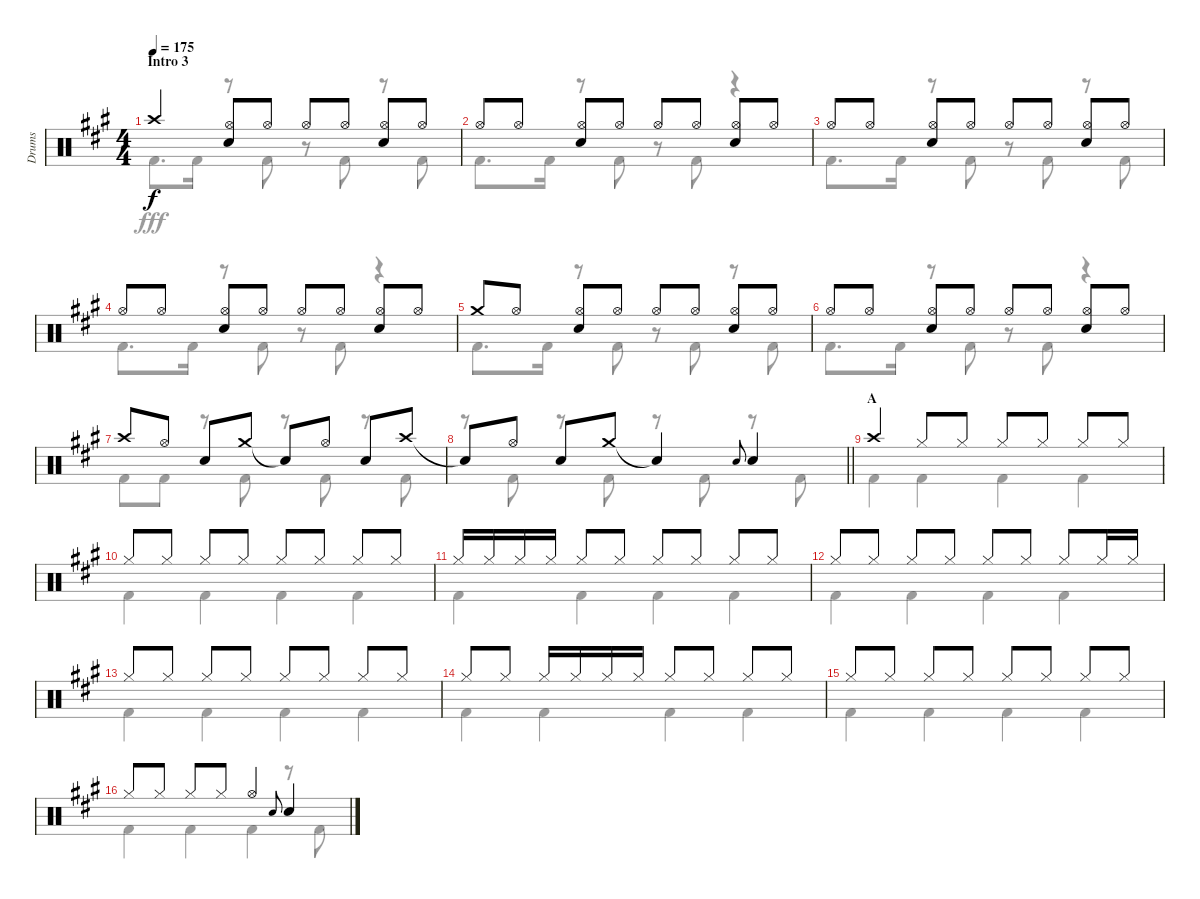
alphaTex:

\track ("Drums" "Drums") {instrument percussion}
\staff {score}
\articulation defaults
\voice
\ts (4 4)
\section ("" "Intro 3")
\tempo 175
\clef neutral
\ks a "Crash high (hit)".4{dy f}
("Hi-Hat (open)" "Snare (hit) 2").8 "Hi-Hat (open)".8 "Hi-Hat (open)".8 "Hi-Hat (open)".8 ("Hi-Hat (open)" "Snare (hit) 2").8 "Hi-Hat (open)".8 |
"Hi-Hat (open)".8 "Hi-Hat (open)".8 ("Hi-Hat (open)" "Snare (hit) 2").8 "Hi-Hat (open)".8 "Hi-Hat (open)".8 "Hi-Hat (open)".8 ("Hi-Hat (open)" "Snare (hit) 2").8 "Hi-Hat (open)".8 |
"Hi-Hat (open)".8 "Hi-Hat (open)".8 ("Hi-Hat (open)" "Snare (hit) 2").8 "Hi-Hat (open)".8 "Hi-Hat (open)".8 "Hi-Hat (open)".8 ("Hi-Hat (open)" "Snare (hit) 2").8 "Hi-Hat (open)".8 |
"Hi-Hat (open)".8 "Hi-Hat (open)".8 ("Hi-Hat (open)" "Snare (hit) 2").8 "Hi-Hat (open)".8 "Hi-Hat (open)".8 "Hi-Hat (open)".8 ("Hi-Hat (open)" "Snare (hit) 2").8 "Hi-Hat (open)".8 |
"Crash medium (hit)".8 "Hi-Hat (open)".8 ("Hi-Hat (open)" "Snare (hit) 2").8 "Hi-Hat (open)".8 "Hi-Hat (open)".8 "Hi-Hat (open)".8 ("Hi-Hat (open)" "Snare (hit) 2").8 "Hi-Hat (open)".8 |
"Hi-Hat (open)".8 "Hi-Hat (open)".8 ("Hi-Hat (open)" "Snare (hit) 2").8 "Hi-Hat (open)".8 "Hi-Hat (open)".8 "Hi-Hat (open)".8 ("Hi-Hat (open)" "Snare (hit) 2").8 "Hi-Hat (open)".8 |
"Crash high (hit)".8 "Hi-Hat (open)".8 "Snare (hit) 2".8 "Crash medium (hit)".8 "Snare (hit)"{t}.8 "Hi-Hat (open)".8 "Snare (hit) 2".8 "Crash high (hit)".8 |
\barLineRight lightlight "Snare (hit)"{t}.8 "Hi-Hat (open)".8 "Snare (hit) 2".8 "Crash medium (hit)".8 "Snare (hit)"{t}.4 "Snare (hit) 2".8{gr onbeat} "Snare (hit) 2".4
|
\section ("" "A")
"Crash high (hit)".4 "Hi-Hat (closed)".8 "Hi-Hat (closed)".8 "Hi-Hat (closed)".8 "Hi-Hat (closed)".8 "Hi-Hat (closed)".8 "Hi-Hat (closed)".8 |
"Hi-Hat (closed)".8 "Hi-Hat (closed)".8 "Hi-Hat (closed)".8 "Hi-Hat (closed)".8 "Hi-Hat (closed)".8 "Hi-Hat (closed)".8 "Hi-Hat (closed)".8 "Hi-Hat (closed)".8 |
"Hi-Hat (closed)".16 "Hi-Hat (closed)".16 "Hi-Hat (closed)".16 "Hi-Hat (closed)".16 "Hi-Hat (closed)".8 "Hi-Hat (closed)".8 "Hi-Hat (closed)".8 "Hi-Hat (closed)".8 "Hi-Hat (closed)".8 "Hi-Hat (closed)".8 |
"Hi-Hat (closed)".8 "Hi-Hat (closed)".8 "Hi-Hat (closed)".8 "Hi-Hat (closed)".8 "Hi-Hat (closed)".8 "Hi-Hat (closed)".8 "Hi-Hat (closed)".8 "Hi-Hat (closed)".16 "Hi-Hat (closed)".16 |
"Hi-Hat (closed)".8 "Hi-Hat (closed)".8 "Hi-Hat (closed)".8 "Hi-Hat (closed)".8 "Hi-Hat (closed)".8 "Hi-Hat (closed)".8 "Hi-Hat (closed)".8 "Hi-Hat (closed)".8 |
"Hi-Hat (closed)".8 "Hi-Hat (closed)".8 "Hi-Hat (closed)".16 "Hi-Hat (closed)".16 "Hi-Hat (closed)".16 "Hi-Hat (closed)".16 "Hi-Hat (closed)".8 "Hi-Hat (closed)".8 "Hi-Hat (closed)".8 "Hi-Hat (closed)".8 |
"Hi-Hat (closed)".8 "Hi-Hat (closed)".8 "Hi-Hat (closed)".8 "Hi-Hat (closed)".8 "Hi-Hat (closed)".8 "Hi-Hat (closed)".8 "Hi-Hat (closed)".8 "Hi-Hat (closed)".8 |
"Hi-Hat (closed)".8 "Hi-Hat (closed)".8 "Hi-Hat (closed)".8 "Hi-Hat (closed)".8 "Hi-Hat (open)".4 "Snare (hit) 2".8{gr onbeat} "Snare (hit) 2".4
\voice
\clef neutral
\ottava regular
\simile none
\ks a "Kick (hit) 2".8{d dy fff} "Kick (hit) 2".16
r.8 "Kick (hit) 2".8 r.8 "Kick (hit) 2".8 r.8 "Kick (hit) 2".8 |
"Kick (hit) 2".8{d} "Kick (hit) 2".16 r.8 "Kick (hit) 2".8 r.8 "Kick (hit) 2".8 r.4 |
"Kick (hit) 2".8{d} "Kick (hit) 2".16 r.8 "Kick (hit) 2".8 r.8 "Kick (hit) 2".8 r.8 "Kick (hit) 2".8 |
"Kick (hit) 2".8{d} "Kick (hit) 2".16 r.8 "Kick (hit) 2".8 r.8 "Kick (hit) 2".8 r.4 |
"Kick (hit) 2".8{d} "Kick (hit) 2".16 r.8 "Kick (hit) 2".8 r.8 "Kick (hit) 2".8 r.8 "Kick (hit) 2".8 |
"Kick (hit) 2".8{d} "Kick (hit) 2".16 r.8 "Kick (hit) 2".8 r.8 "Kick (hit) 2".8 r.4 |
"Kick (hit) 2".8 "Kick (hit) 2".8 r.8 "Kick (hit) 2".8 r.8 "Kick (hit) 2".8 r.8 "Kick (hit) 2".8 |
\barLineRight lightlight
r.8 "Kick (hit) 2".8 r.8 "Kick (hit) 2".8 r.8 "Kick (hit) 2".8 r.8 "Kick (hit) 2".8 |
"Kick (hit) 2".4 "Kick (hit) 2".4 "Kick (hit) 2".4 "Kick (hit) 2".4 |
"Kick (hit) 2".4 "Kick (hit) 2".4 "Kick (hit) 2".4 "Kick (hit) 2".4 |
"Kick (hit) 2".4 "Kick (hit) 2".4 "Kick (hit) 2".4 "Kick (hit) 2".4 |
"Kick (hit) 2".4 "Kick (hit) 2".4 "Kick (hit) 2".4 "Kick (hit) 2".4 |
"Kick (hit) 2".4 "Kick (hit) 2".4 "Kick (hit) 2".4 "Kick (hit) 2".4 |
"Kick (hit) 2".4 "Kick (hit) 2".4 "Kick (hit) 2".4 "Kick (hit) 2".4 |
"Kick (hit) 2".4 "Kick (hit) 2".4 "Kick (hit) 2".4 "Kick (hit) 2".4 |
"Kick (hit) 2".4 "Kick (hit) 2".4 "Kick (hit) 2".4 r.8 "Kick (hit) 2".8
